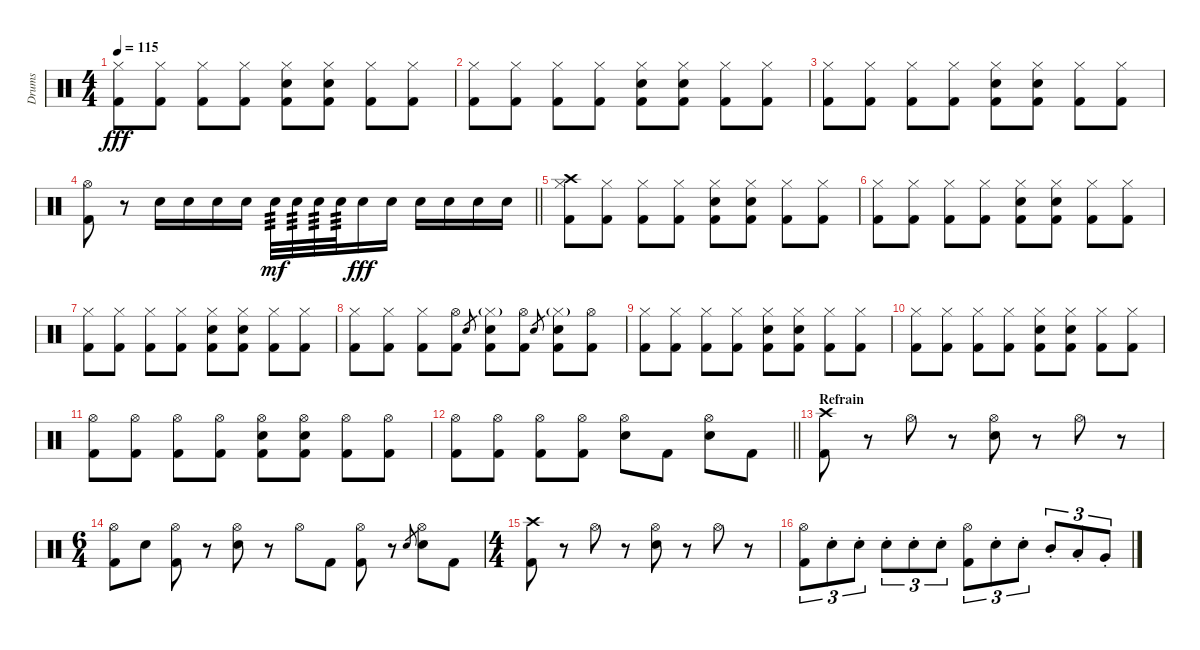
\track ("Drums" "Drums") {instrument percussion}
\staff {score}
\articulation defaults
\ts (4 4)
\tempo 115
\clef neutral
\ks c
("Hi-Hat (closed)" "Kick (hit) 2").8{dy fff} ("Hi-Hat (closed)" "Kick (hit) 2").8 ("Hi-Hat (closed)" "Kick (hit) 2").8 ("Hi-Hat (closed)" "Kick (hit) 2").8 ("Hi-Hat (closed)" "Electric Snare (hit)" "Kick (hit) 2").8 ("Hi-Hat (closed)" "Electric Snare (hit)" "Kick (hit) 2").8 ("Hi-Hat (closed)" "Kick (hit) 2").8 ("Hi-Hat (closed)" "Kick (hit) 2").8 |
("Hi-Hat (closed)" "Kick (hit) 2").8 ("Hi-Hat (closed)" "Kick (hit) 2").8 ("Hi-Hat (closed)" "Kick (hit) 2").8 ("Hi-Hat (closed)" "Kick (hit) 2").8 ("Hi-Hat (closed)" "Electric Snare (hit)" "Kick (hit) 2").8 ("Hi-Hat (closed)" "Electric Snare (hit)" "Kick (hit) 2").8 ("Hi-Hat (closed)" "Kick (hit) 2").8 ("Hi-Hat (closed)" "Kick (hit) 2").8 |
("Hi-Hat (closed)" "Kick (hit) 2").8 ("Hi-Hat (closed)" "Kick (hit) 2").8 ("Hi-Hat (closed)" "Kick (hit) 2").8 ("Hi-Hat (closed)" "Kick (hit) 2").8 ("Hi-Hat (closed)" "Electric Snare (hit)" "Kick (hit) 2").8 ("Hi-Hat (closed)" "Electric Snare (hit)" "Kick (hit) 2").8 ("Hi-Hat (closed)" "Kick (hit) 2").8 ("Hi-Hat (closed)" "Kick (hit) 2").8 |
\barLineRight lightlight
("Hi-Hat (open)" "Kick (hit) 2").8 r.8 "Electric Snare (hit)".16 "Electric Snare (hit)".16 "Electric Snare (hit)".16 "Electric Snare (hit)".16 "Electric Snare (hit)".32{tp 3 dy mf} "Electric Snare (hit)".32{tp 3} "Electric Snare (hit)".32{tp 3} "Electric Snare (hit)".32{tp 3} "Electric Snare (hit)".16{dy fff} "Electric Snare (hit)".16 "Electric Snare (hit)".16 "Electric Snare (hit)".16 "Electric Snare (hit)".16 "Electric Snare (hit)".16 |
("Crash high (hit)" "Hi-Hat (closed)" "Kick (hit) 2").8 ("Hi-Hat (closed)" "Kick (hit) 2").8 ("Hi-Hat (closed)" "Kick (hit) 2").8 ("Hi-Hat (closed)" "Kick (hit) 2").8 ("Hi-Hat (closed)" "Electric Snare (hit)" "Kick (hit) 2").8 ("Hi-Hat (closed)" "Electric Snare (hit)" "Kick (hit) 2").8 ("Hi-Hat (closed)" "Kick (hit) 2").8 ("Hi-Hat (closed)" "Kick (hit) 2").8 |
("Hi-Hat (closed)" "Kick (hit) 2").8 ("Hi-Hat (closed)" "Kick (hit) 2").8 ("Hi-Hat (closed)" "Kick (hit) 2").8 ("Hi-Hat (closed)" "Kick (hit) 2").8 ("Hi-Hat (closed)" "Electric Snare (hit)" "Kick (hit) 2").8 ("Hi-Hat (closed)" "Electric Snare (hit)" "Kick (hit) 2").8 ("Hi-Hat (closed)" "Kick (hit) 2").8 ("Hi-Hat (closed)" "Kick (hit) 2").8 |
("Hi-Hat (closed)" "Kick (hit) 2").8 ("Hi-Hat (closed)" "Kick (hit) 2").8 ("Hi-Hat (closed)" "Kick (hit) 2").8 ("Hi-Hat (closed)" "Kick (hit) 2").8 ("Hi-Hat (closed)" "Electric Snare (hit)" "Kick (hit) 2").8 ("Hi-Hat (closed)" "Electric Snare (hit)" "Kick (hit) 2").8 ("Hi-Hat (closed)" "Kick (hit) 2").8 ("Hi-Hat (closed)" "Kick (hit) 2").8 |
("Hi-Hat (closed)" "Kick (hit) 2").8 ("Hi-Hat (closed)" "Kick (hit) 2").8 ("Hi-Hat (closed)" "Kick (hit) 2").8 ("Hi-Hat (open)" "Kick (hit) 2").8 "Electric Snare (hit)".8{gr} ("Hi-Hat (closed)"{g} "Electric Snare (hit)" "Kick (hit) 2").8 ("Hi-Hat (open)" "Kick (hit) 2").8 "Electric Snare (hit)".8{gr} ("Hi-Hat (closed)"{g} "Electric Snare (hit)" "Kick (hit) 2").8 ("Hi-Hat (open)" "Kick (hit) 2").8 |
("Hi-Hat (closed)" "Kick (hit) 2").8 ("Hi-Hat (closed)" "Kick (hit) 2").8 ("Hi-Hat (closed)" "Kick (hit) 2").8 ("Hi-Hat (closed)" "Kick (hit) 2").8 ("Hi-Hat (closed)" "Electric Snare (hit)" "Kick (hit) 2").8 ("Hi-Hat (closed)" "Electric Snare (hit)" "Kick (hit) 2").8 ("Hi-Hat (closed)" "Kick (hit) 2").8 ("Hi-Hat (closed)" "Kick (hit) 2").8 |
("Hi-Hat (closed)" "Kick (hit) 2").8 ("Hi-Hat (closed)" "Kick (hit) 2").8 ("Hi-Hat (closed)" "Kick (hit) 2").8 ("Hi-Hat (closed)" "Kick (hit) 2").8 ("Hi-Hat (closed)" "Electric Snare (hit)" "Kick (hit) 2").8 ("Hi-Hat (closed)" "Electric Snare (hit)" "Kick (hit) 2").8 ("Hi-Hat (closed)" "Kick (hit) 2").8 ("Hi-Hat (closed)" "Kick (hit) 2").8 |
("Hi-Hat (open)" "Kick (hit) 2").8 ("Hi-Hat (open)" "Kick (hit) 2").8 ("Hi-Hat (open)" "Kick (hit) 2").8 ("Hi-Hat (open)" "Kick (hit) 2").8 ("Hi-Hat (open)" "Electric Snare (hit)" "Kick (hit) 2").8 ("Hi-Hat (open)" "Electric Snare (hit)" "Kick (hit) 2").8 ("Hi-Hat (open)" "Kick (hit) 2").8 ("Hi-Hat (open)" "Kick (hit) 2").8 |
\barLineRight lightlight
("Hi-Hat (open)" "Kick (hit) 2").8 ("Hi-Hat (open)" "Kick (hit) 2").8 ("Hi-Hat (open)" "Kick (hit) 2").8 ("Hi-Hat (open)" "Kick (hit) 2").8 ("Hi-Hat (open)" "Electric Snare (hit)").8 "Kick (hit) 2".8 ("Hi-Hat (open)" "Electric Snare (hit)").8 "Kick (hit) 2".8 |
\section ("" "Refrain")
("Crash high (hit)" "Kick (hit) 2").8 r.8 "Hi-Hat (open)".8 r.8 ("Hi-Hat (open)" "Electric Snare (hit)").8 r.8 "Hi-Hat (open)".8 r.8 |
\ts (6 4)
("Hi-Hat (open)" "Kick (hit) 2").8 "Electric Snare (hit)".8 ("Hi-Hat (open)" "Kick (hit) 2").8 r.8 ("Hi-Hat (open)" "Electric Snare (hit)").8 r.8 "Hi-Hat (open)".8 "Kick (hit) 2".8 ("Hi-Hat (open)" "Kick (hit) 2").8 r.8 "Electric Snare (hit)".8{gr} ("Hi-Hat (open)" "Electric Snare (hit)").8 "Kick (hit) 2".8 |
\ts (4 4)
("Crash high (hit)" "Kick (hit) 2").8 r.8 "Hi-Hat (open)".8 r.8 ("Hi-Hat (open)" "Electric Snare (hit)").8 r.8 "Hi-Hat (open)".8 r.8 |
("Hi-Hat (open)" "Kick (hit) 2").8{tu (3 2)} "Electric Snare (hit)"{st}.8{tu (3 2)} "Electric Snare (hit)"{st}.8{tu (3 2)} "Electric Snare (hit)"{st}.8{tu (3 2)} "Electric Snare (hit)"{st}.8{tu (3 2)} "Electric Snare (hit)"{st}.8{tu (3 2)} ("Hi-Hat (open)" "Kick (hit) 2").8{tu (3 2)} "Electric Snare (hit)"{st}.8{tu (3 2)} "Electric Snare (hit)"{st}.8{tu (3 2)} "Mid Tom (hit)"{st}.8{tu (3 2)} "Low Tom (hit)"{st}.8{tu (3 2)} "Very Low Tom (hit)"{st}.8{tu (3 2)}
